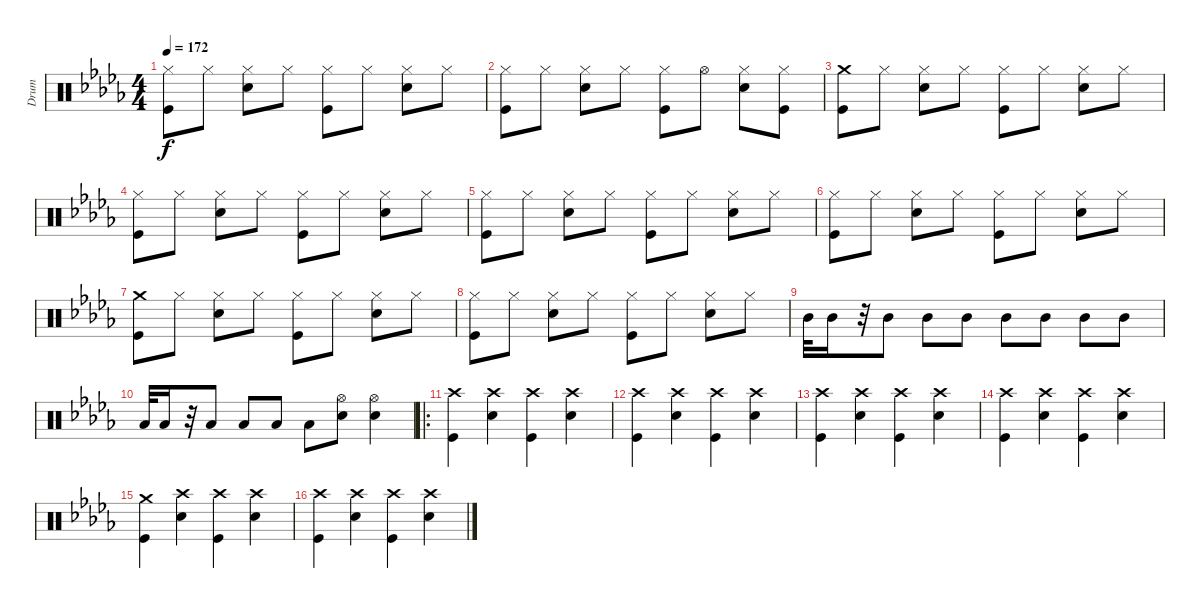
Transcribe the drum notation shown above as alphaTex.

\track ("Drum" "Drum") {instrument percussion}
\staff {score}
\articulation defaults
\ts (4 4)
\tempo 172
\clef neutral
\ks db
("Hi-Hat (closed)" "Kick (hit)").8{dy f} "Hi-Hat (closed)".8 ("Hi-Hat (closed)" "Snare (hit) 2").8 "Hi-Hat (closed)".8 ("Hi-Hat (closed)" "Kick (hit)").8 "Hi-Hat (closed)".8 ("Hi-Hat (closed)" "Snare (hit) 2").8 "Hi-Hat (closed)".8 |
("Hi-Hat (closed)" "Kick (hit)").8 "Hi-Hat (closed)".8 ("Hi-Hat (closed)" "Snare (hit) 2").8 "Hi-Hat (closed)".8 ("Hi-Hat (closed)" "Kick (hit)").8 "Hi-Hat (open)".8 ("Hi-Hat (closed)" "Snare (hit) 2").8 ("Hi-Hat (closed)" "Kick (hit)").8 |
("Crash medium (hit)" "Kick (hit)").8 "Hi-Hat (closed)".8 ("Hi-Hat (closed)" "Snare (hit) 2").8 "Hi-Hat (closed)".8 ("Hi-Hat (closed)" "Kick (hit)").8 "Hi-Hat (closed)".8 ("Hi-Hat (closed)" "Snare (hit) 2").8 "Hi-Hat (closed)".8 |
("Hi-Hat (closed)" "Kick (hit)").8 "Hi-Hat (closed)".8 ("Hi-Hat (closed)" "Snare (hit) 2").8 "Hi-Hat (closed)".8 ("Hi-Hat (closed)" "Kick (hit)").8 "Hi-Hat (closed)".8 ("Hi-Hat (closed)" "Snare (hit) 2").8 "Hi-Hat (closed)".8 |
("Hi-Hat (closed)" "Kick (hit)").8 "Hi-Hat (closed)".8 ("Hi-Hat (closed)" "Snare (hit) 2").8 "Hi-Hat (closed)".8 ("Hi-Hat (closed)" "Kick (hit)").8 "Hi-Hat (closed)".8 ("Hi-Hat (closed)" "Snare (hit) 2").8 "Hi-Hat (closed)".8 |
("Hi-Hat (closed)" "Kick (hit)").8 "Hi-Hat (closed)".8 ("Hi-Hat (closed)" "Snare (hit) 2").8 "Hi-Hat (closed)".8 ("Hi-Hat (closed)" "Kick (hit)").8 "Hi-Hat (closed)".8 ("Hi-Hat (closed)" "Snare (hit) 2").8 "Hi-Hat (closed)".8 |
("Crash medium (hit)" "Kick (hit)").8 "Hi-Hat (closed)".8 ("Hi-Hat (closed)" "Snare (hit) 2").8 "Hi-Hat (closed)".8 ("Hi-Hat (closed)" "Kick (hit)").8 "Hi-Hat (closed)".8 ("Hi-Hat (closed)" "Snare (hit) 2").8 "Hi-Hat (closed)".8 |
("Hi-Hat (closed)" "Kick (hit)").8 "Hi-Hat (closed)".8 ("Hi-Hat (closed)" "Snare (hit) 2").8 "Hi-Hat (closed)".8 ("Hi-Hat (closed)" "Kick (hit)").8 "Hi-Hat (closed)".8 ("Hi-Hat (closed)" "Snare (hit) 2").8 "Hi-Hat (closed)".8 |
"Mid Tom (hit)".32 "Mid Tom (hit)".16 r.32 "Mid Tom (hit)".8 "Mid Tom (hit)".8 "Mid Tom (hit)".8 "Mid Tom (hit)".8 "Mid Tom (hit)".8 "Mid Tom (hit)".8 "Mid Tom (hit)".8 |
"Low Tom (hit)".32 "Low Tom (hit)".16 r.32 "Low Tom (hit)".8 "Low Tom (hit)".8 "Low Tom (hit)".8 "Low Tom (hit)".8 ("Hi-Hat (open)" "Snare (hit) 2").8 ("Hi-Hat (open)" "Snare (hit) 2").4 |
\ro
("Crash high (hit)" "Kick (hit)").4 ("Crash high (hit)" "Snare (hit) 2").4 ("Crash high (hit)" "Kick (hit)").4 ("Crash high (hit)" "Snare (hit) 2").4 |
("Crash high (hit)" "Kick (hit)").4 ("Crash high (hit)" "Snare (hit) 2").4 ("Crash high (hit)" "Kick (hit)").4 ("Crash high (hit)" "Snare (hit) 2").4 |
("Crash high (hit)" "Kick (hit)").4 ("Crash high (hit)" "Snare (hit) 2").4 ("Crash high (hit)" "Kick (hit)").4 ("Crash high (hit)" "Snare (hit) 2").4 |
("Crash high (hit)" "Kick (hit)").4 ("Crash high (hit)" "Snare (hit) 2").4 ("Crash high (hit)" "Kick (hit)").4 ("Crash high (hit)" "Snare (hit) 2").4 |
("Crash medium (hit)" "Kick (hit)").4 ("Crash high (hit)" "Snare (hit) 2").4 ("Crash high (hit)" "Kick (hit)").4 ("Crash high (hit)" "Snare (hit) 2").4 |
("Crash high (hit)" "Kick (hit)").4 ("Crash high (hit)" "Snare (hit) 2").4 ("Crash high (hit)" "Kick (hit)").4 ("Crash high (hit)" "Snare (hit) 2").4
